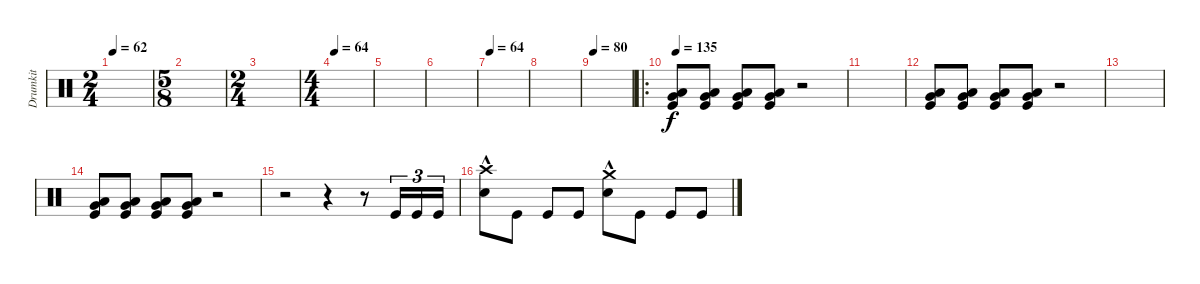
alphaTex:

\track ("Drumkit" "Drumkit") {instrument percussion}
\staff {score}
\articulation defaults
\ts (2 4)
\tempo 62
\clef neutral
\ks c
|
\ts (5 8)
|
\ts (2 4)
|
\ts (4 4)
\tempo 64
|
|
|
\tempo 64
|
|
\tempo 80
|
\ro
\tempo 135
("Kick (hit)" "Low Floor Tom (hit)" "Very Low Tom (hit)").8 ("Very Low Tom (hit)" "Low Floor Tom (hit)" "Kick (hit)").8 ("Very Low Tom (hit)" "Low Floor Tom (hit)" "Kick (hit)").8 ("Very Low Tom (hit)" "Low Floor Tom (hit)" "Kick (hit)").8 r.2 |
|
("Kick (hit)" "Low Floor Tom (hit)" "Very Low Tom (hit)").8 ("Low Floor Tom (hit)" "Kick (hit)" "Very Low Tom (hit)").8 ("Low Floor Tom (hit)" "Kick (hit)" "Very Low Tom (hit)").8 ("Kick (hit)" "Low Floor Tom (hit)" "Very Low Tom (hit)").8 r.2 |
|
("Kick (hit)" "Low Floor Tom (hit)" "Very Low Tom (hit)").8 ("Very Low Tom (hit)" "Low Floor Tom (hit)" "Kick (hit)").8 ("Very Low Tom (hit)" "Low Floor Tom (hit)" "Kick (hit)").8 ("Very Low Tom (hit)" "Low Floor Tom (hit)" "Kick (hit)").8 r.2 |
r.2 r.4 r.8 "Kick (hit)".16{tu (3 2)} "Kick (hit)".16{tu (3 2)} "Kick (hit)".16{tu (3 2)} |
("Snare (hit) 2"{hac} "Crash high (hit)").8 "Kick (hit)".8 "Kick (hit)".8 "Kick (hit)".8 ("Snare (hit) 2"{hac} "Crash medium (hit)").8 "Kick (hit)".8 "Kick (hit)".8 "Kick (hit)".8
